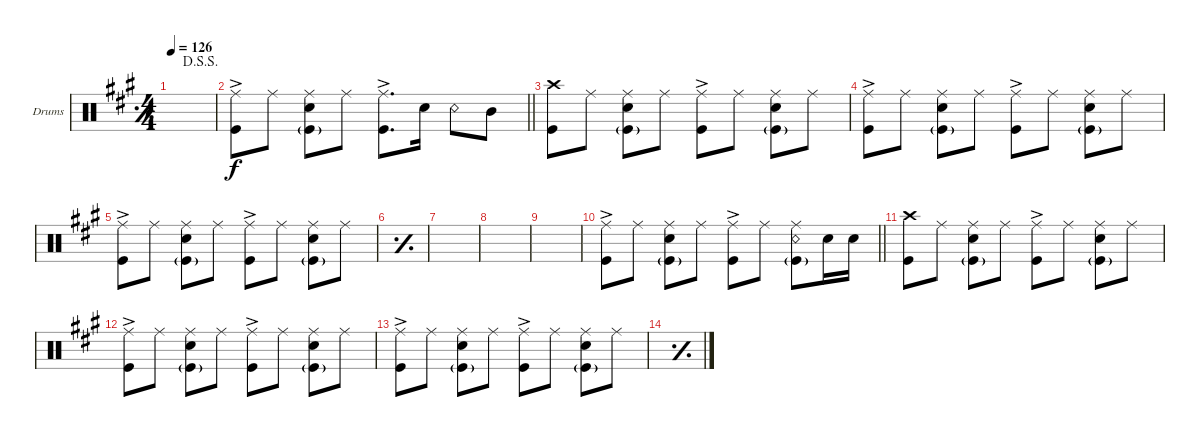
\bracketExtendMode groupsimilarinstruments
\firstSystemTrackNameOrientation horizontal
\otherSystemsTrackNameOrientation horizontal
\track ("Drumkit" "Drums") {instrument percussion}
\staff {score}
\articulation defaults
\ts (4 4)
\jump dalsegnosegno
\tempo 126
\clef neutral
\simile simple
\ks a
|
\barLineRight lightlight
("Ride (middle)"{ac} "Kick (hit)").8 "Ride (middle)".8 ("Ride (middle)" "Snare (hit) 2" "Kick (hit)"{g}).8 "Ride (middle)".8 ("Ride (middle)"{ac} "Kick (hit)").8{d} "Snare (hit) 2".16 "Snare (rim shot)".8 "Mid Tom (hit)".8 |
("Crash high (hit)" "Kick (hit)").8 "Ride (middle)".8 ("Ride (middle)" "Snare (hit) 2" "Kick (hit)"{g}).8 "Ride (middle)".8 ("Ride (middle)"{ac} "Kick (hit)").8 "Ride (middle)".8 ("Ride (middle)" "Snare (hit) 2" "Kick (hit)"{g}).8 "Ride (middle)".8 |
("Ride (middle)"{ac} "Kick (hit)").8 "Ride (middle)".8 ("Ride (middle)" "Snare (hit) 2" "Kick (hit)"{g}).8 "Ride (middle)".8 ("Ride (middle)"{ac} "Kick (hit)").8 "Ride (middle)".8 ("Ride (middle)" "Snare (hit) 2" "Kick (hit)"{g}).8 "Ride (middle)".8 |
("Ride (middle)"{ac} "Kick (hit)").8 "Ride (middle)".8 ("Ride (middle)" "Snare (hit) 2" "Kick (hit)"{g}).8 "Ride (middle)".8 ("Ride (middle)"{ac} "Kick (hit)").8 "Ride (middle)".8 ("Ride (middle)" "Snare (hit) 2" "Kick (hit)"{g}).8 "Ride (middle)".8 |
\simile simple
|
|
|
|
\simile none
\barLineRight lightlight
("Ride (middle)"{ac} "Kick (hit)").8 "Ride (middle)".8 ("Ride (middle)" "Snare (hit) 2" "Kick (hit)"{g}).8 "Ride (middle)".8 ("Ride (middle)"{ac} "Kick (hit)").8 "Ride (middle)".8 ("Ride (middle)" "Snare (rim shot)" "Kick (hit)"{g}).8 "Snare (hit) 2".16 "Snare (hit) 2".16 |
("Crash high (hit)" "Kick (hit)").8 "Ride (middle)".8 ("Ride (middle)" "Snare (hit) 2" "Kick (hit)"{g}).8 "Ride (middle)".8 ("Ride (middle)"{ac} "Kick (hit)").8 "Ride (middle)".8 ("Ride (middle)" "Snare (hit) 2" "Kick (hit)"{g}).8 "Ride (middle)".8 |
("Ride (middle)"{ac} "Kick (hit)").8 "Ride (middle)".8 ("Ride (middle)" "Snare (hit) 2" "Kick (hit)"{g}).8 "Ride (middle)".8 ("Ride (middle)"{ac} "Kick (hit)").8 "Ride (middle)".8 ("Ride (middle)" "Snare (hit) 2" "Kick (hit)"{g}).8 "Ride (middle)".8 |
("Ride (middle)"{ac} "Kick (hit)").8 "Ride (middle)".8 ("Ride (middle)" "Snare (hit) 2" "Kick (hit)"{g}).8 "Ride (middle)".8 ("Ride (middle)"{ac} "Kick (hit)").8 "Ride (middle)".8 ("Ride (middle)" "Snare (hit) 2" "Kick (hit)"{g}).8 "Ride (middle)".8 |
\simile simple
